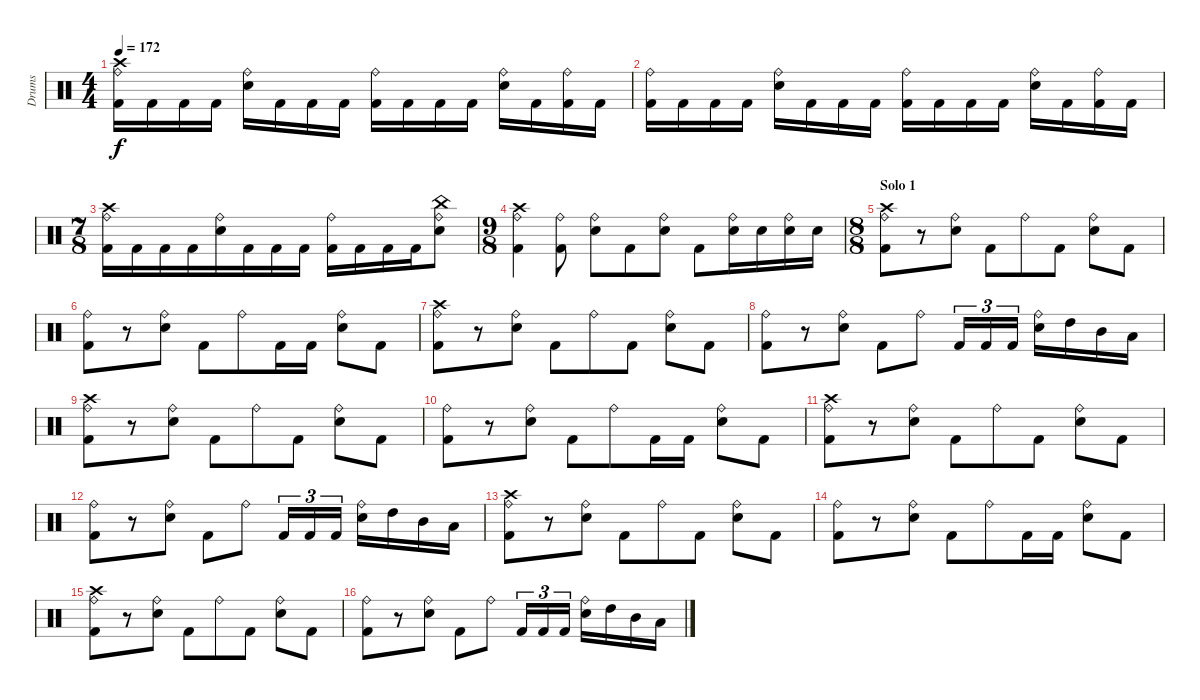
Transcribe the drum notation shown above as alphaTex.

\track ("Drums" "Drums") {instrument percussion}
\staff {score}
\articulation defaults
\ts (4 4)
\tempo 172
\clef neutral
\ks c
("Crash high (hit)" "Ride (bell)" "Kick (hit) 2").16{dy f} "Kick (hit) 2".16 "Kick (hit) 2".16 "Kick (hit) 2".16 ("Ride (bell)" "Electric Snare (hit)").16 "Kick (hit) 2".16 "Kick (hit) 2".16 "Kick (hit) 2".16 ("Ride (bell)" "Kick (hit) 2").16 "Kick (hit) 2".16 "Kick (hit) 2".16 "Kick (hit) 2".16 ("Ride (bell)" "Electric Snare (hit)").16 "Kick (hit) 2".16 ("Ride (bell)" "Kick (hit) 2").16 "Kick (hit) 2".16 |
("Ride (bell)" "Kick (hit) 2").16 "Kick (hit) 2".16 "Kick (hit) 2".16 "Kick (hit) 2".16 ("Ride (bell)" "Electric Snare (hit)").16 "Kick (hit) 2".16 "Kick (hit) 2".16 "Kick (hit) 2".16 ("Ride (bell)" "Kick (hit) 2").16 "Kick (hit) 2".16 "Kick (hit) 2".16 "Kick (hit) 2".16 ("Ride (bell)" "Electric Snare (hit)").16 "Kick (hit) 2".16 ("Ride (bell)" "Kick (hit) 2").16 "Kick (hit) 2".16 |
\ts (7 8)
("Crash high (hit)" "Ride (bell)" "Kick (hit) 2").16 "Kick (hit) 2".16 "Kick (hit) 2".16 "Kick (hit) 2".16 ("Ride (bell)" "Electric Snare (hit)").16 "Kick (hit) 2".16 "Kick (hit) 2".16 "Kick (hit) 2".16 ("Ride (bell)" "Kick (hit) 2").16 "Kick (hit) 2".16 "Kick (hit) 2".16 "Kick (hit) 2".16 ("China (hit)" "Ride (bell)" "Electric Snare (hit)").8 |
\ts (9 8)
("Crash high (hit)" "Ride (bell)" "Kick (hit) 2").4 ("Ride (bell)" "Kick (hit) 2").8 ("Ride (bell)" "Electric Snare (hit)").8 "Kick (hit) 2".8 ("Ride (bell)" "Electric Snare (hit)").8 "Kick (hit) 2".8 ("Ride (bell)" "Electric Snare (hit)").16 "Electric Snare (hit)".16 ("Ride (bell)" "Electric Snare (hit)").16 "Electric Snare (hit)".16 |
\ts (8 8)
\section ("" "Solo 1")
("Crash high (hit)" "Ride (bell)" "Kick (hit) 2").8 r.8 ("Ride (bell)" "Electric Snare (hit)").8 "Kick (hit) 2".8 "Ride (bell)".8 "Kick (hit) 2".8 ("Ride (bell)" "Electric Snare (hit)").8 "Kick (hit) 2".8 |
("Ride (bell)" "Kick (hit) 2").8 r.8 ("Ride (bell)" "Electric Snare (hit)").8 "Kick (hit) 2".8 "Ride (bell)".8 "Kick (hit) 2".16 "Kick (hit) 2".16 ("Ride (bell)" "Electric Snare (hit)").8 "Kick (hit) 2".8 |
("Crash high (hit)" "Ride (bell)" "Kick (hit) 2").8 r.8 ("Ride (bell)" "Electric Snare (hit)").8 "Kick (hit) 2".8 "Ride (bell)".8 "Kick (hit) 2".8 ("Ride (bell)" "Electric Snare (hit)").8 "Kick (hit) 2".8 |
("Ride (bell)" "Kick (hit) 2").8 r.8 ("Ride (bell)" "Electric Snare (hit)").8 "Kick (hit) 2".8 "Ride (bell)".8 "Kick (hit) 2".16{tu (3 2)} "Kick (hit) 2".16{tu (3 2)} "Kick (hit) 2".16{tu (3 2)} ("Ride (bell)" "Electric Snare (hit)").16 "High Tom (hit)".16 "Mid Tom (hit)".16 "Low Tom (hit)".16 |
("Crash high (hit)" "Ride (bell)" "Kick (hit) 2").8 r.8 ("Ride (bell)" "Electric Snare (hit)").8 "Kick (hit) 2".8 "Ride (bell)".8 "Kick (hit) 2".8 ("Ride (bell)" "Electric Snare (hit)").8 "Kick (hit) 2".8 |
("Ride (bell)" "Kick (hit) 2").8 r.8 ("Ride (bell)" "Electric Snare (hit)").8 "Kick (hit) 2".8 "Ride (bell)".8 "Kick (hit) 2".16 "Kick (hit) 2".16 ("Ride (bell)" "Electric Snare (hit)").8 "Kick (hit) 2".8 |
("Crash high (hit)" "Ride (bell)" "Kick (hit) 2").8 r.8 ("Ride (bell)" "Electric Snare (hit)").8 "Kick (hit) 2".8 "Ride (bell)".8 "Kick (hit) 2".8 ("Ride (bell)" "Electric Snare (hit)").8 "Kick (hit) 2".8 |
("Ride (bell)" "Kick (hit) 2").8 r.8 ("Ride (bell)" "Electric Snare (hit)").8 "Kick (hit) 2".8 "Ride (bell)".8 "Kick (hit) 2".16{tu (3 2)} "Kick (hit) 2".16{tu (3 2)} "Kick (hit) 2".16{tu (3 2)} ("Ride (bell)" "Electric Snare (hit)").16 "High Tom (hit)".16 "Mid Tom (hit)".16 "Low Tom (hit)".16 |
("Crash high (hit)" "Ride (bell)" "Kick (hit) 2").8 r.8 ("Ride (bell)" "Electric Snare (hit)").8 "Kick (hit) 2".8 "Ride (bell)".8 "Kick (hit) 2".8 ("Ride (bell)" "Electric Snare (hit)").8 "Kick (hit) 2".8 |
("Ride (bell)" "Kick (hit) 2").8 r.8 ("Ride (bell)" "Electric Snare (hit)").8 "Kick (hit) 2".8 "Ride (bell)".8 "Kick (hit) 2".16 "Kick (hit) 2".16 ("Ride (bell)" "Electric Snare (hit)").8 "Kick (hit) 2".8 |
("Crash high (hit)" "Ride (bell)" "Kick (hit) 2").8 r.8 ("Ride (bell)" "Electric Snare (hit)").8 "Kick (hit) 2".8 "Ride (bell)".8 "Kick (hit) 2".8 ("Ride (bell)" "Electric Snare (hit)").8 "Kick (hit) 2".8 |
("Ride (bell)" "Kick (hit) 2").8 r.8 ("Ride (bell)" "Electric Snare (hit)").8 "Kick (hit) 2".8 "Ride (bell)".8 "Kick (hit) 2".16{tu (3 2)} "Kick (hit) 2".16{tu (3 2)} "Kick (hit) 2".16{tu (3 2)} ("Ride (bell)" "Electric Snare (hit)").16 "High Tom (hit)".16 "Mid Tom (hit)".16 "Low Tom (hit)".16
